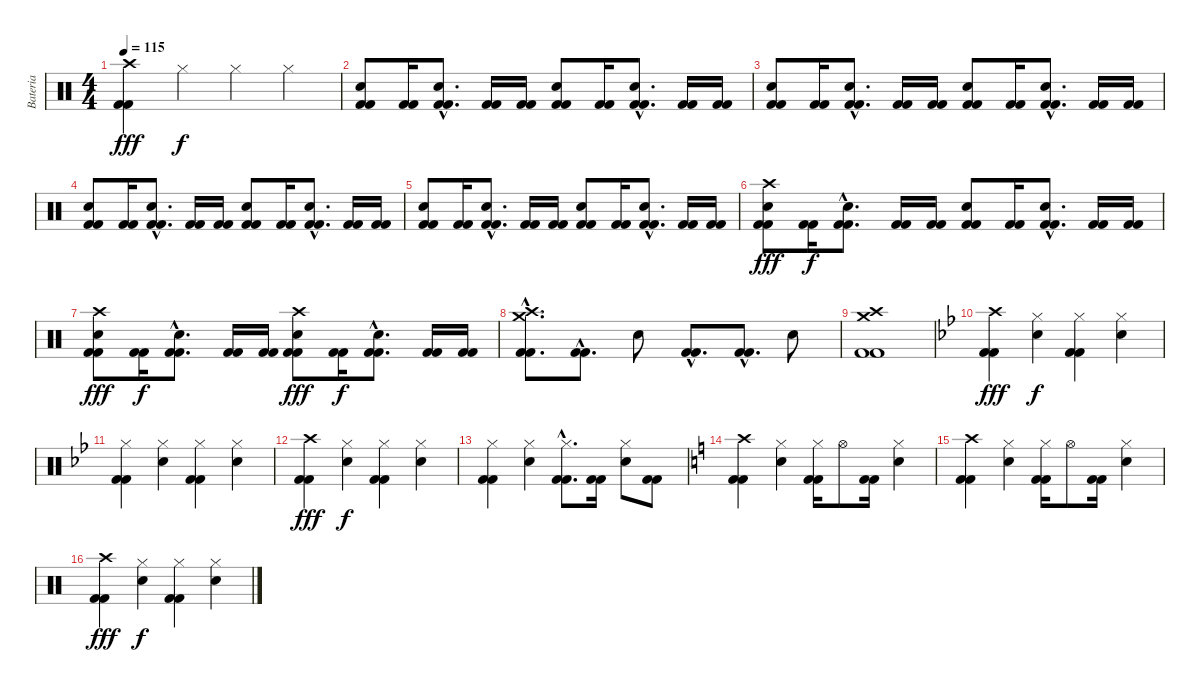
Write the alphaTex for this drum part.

\track ("Bateria" "Bateria") {instrument percussion}
\staff {score}
\articulation defaults
\ts (4 4)
\tempo 115
\clef neutral
\ks c
("Crash high (hit)" "Kick (hit) 2" "Kick (hit) 2").4{dy fff} "Hi-Hat (closed)".4{dy f} "Hi-Hat (closed)".4 "Hi-Hat (closed)".4 |
("Electric Snare (hit)" "Kick (hit) 2" "Kick (hit) 2").8 ("Kick (hit) 2" "Kick (hit) 2").16 ("Electric Snare (hit)"{hac} "Kick (hit) 2"{hac} "Kick (hit) 2"{hac}).8{d} ("Kick (hit) 2" "Kick (hit) 2").16 ("Kick (hit) 2" "Kick (hit) 2").16 ("Electric Snare (hit)" "Kick (hit) 2" "Kick (hit) 2").8 ("Kick (hit) 2" "Kick (hit) 2").16 ("Electric Snare (hit)"{hac} "Kick (hit) 2"{hac} "Kick (hit) 2"{hac}).8{d} ("Kick (hit) 2" "Kick (hit) 2").16 ("Kick (hit) 2" "Kick (hit) 2").16 |
("Electric Snare (hit)" "Kick (hit) 2" "Kick (hit) 2").8 ("Kick (hit) 2" "Kick (hit) 2").16 ("Electric Snare (hit)"{hac} "Kick (hit) 2"{hac} "Kick (hit) 2"{hac}).8{d} ("Kick (hit) 2" "Kick (hit) 2").16 ("Kick (hit) 2" "Kick (hit) 2").16 ("Electric Snare (hit)" "Kick (hit) 2" "Kick (hit) 2").8 ("Kick (hit) 2" "Kick (hit) 2").16 ("Electric Snare (hit)"{hac} "Kick (hit) 2"{hac} "Kick (hit) 2"{hac}).8{d} ("Kick (hit) 2" "Kick (hit) 2").16 ("Kick (hit) 2" "Kick (hit) 2").16 |
("Electric Snare (hit)" "Kick (hit) 2" "Kick (hit) 2").8 ("Kick (hit) 2" "Kick (hit) 2").16 ("Electric Snare (hit)"{hac} "Kick (hit) 2"{hac} "Kick (hit) 2"{hac}).8{d} ("Kick (hit) 2" "Kick (hit) 2").16 ("Kick (hit) 2" "Kick (hit) 2").16 ("Electric Snare (hit)" "Kick (hit) 2" "Kick (hit) 2").8 ("Kick (hit) 2" "Kick (hit) 2").16 ("Electric Snare (hit)"{hac} "Kick (hit) 2"{hac} "Kick (hit) 2"{hac}).8{d} ("Kick (hit) 2" "Kick (hit) 2").16 ("Kick (hit) 2" "Kick (hit) 2").16 |
("Electric Snare (hit)" "Kick (hit) 2" "Kick (hit) 2").8 ("Kick (hit) 2" "Kick (hit) 2").16 ("Electric Snare (hit)"{hac} "Kick (hit) 2"{hac} "Kick (hit) 2"{hac}).8{d} ("Kick (hit) 2" "Kick (hit) 2").16 ("Kick (hit) 2" "Kick (hit) 2").16 ("Electric Snare (hit)" "Kick (hit) 2" "Kick (hit) 2").8 ("Kick (hit) 2" "Kick (hit) 2").16 ("Electric Snare (hit)"{hac} "Kick (hit) 2"{hac} "Kick (hit) 2"{hac}).8{d} ("Kick (hit) 2" "Kick (hit) 2").16 ("Kick (hit) 2" "Kick (hit) 2").16 |
("Crash high (hit)" "Electric Snare (hit)" "Kick (hit) 2" "Kick (hit) 2").8{dy fff} ("Kick (hit) 2" "Kick (hit) 2").16{dy f} ("Electric Snare (hit)"{hac} "Kick (hit) 2"{hac} "Kick (hit) 2"{hac}).8{d} ("Kick (hit) 2" "Kick (hit) 2").16 ("Kick (hit) 2" "Kick (hit) 2").16 ("Electric Snare (hit)" "Kick (hit) 2" "Kick (hit) 2").8 ("Kick (hit) 2" "Kick (hit) 2").16 ("Electric Snare (hit)"{hac} "Kick (hit) 2"{hac} "Kick (hit) 2"{hac}).8{d} ("Kick (hit) 2" "Kick (hit) 2").16 ("Kick (hit) 2" "Kick (hit) 2").16 |
("Crash high (hit)" "Electric Snare (hit)" "Kick (hit) 2" "Kick (hit) 2").8{dy fff} ("Kick (hit) 2" "Kick (hit) 2").16{dy f} ("Electric Snare (hit)"{hac} "Kick (hit) 2"{hac} "Kick (hit) 2"{hac}).8{d} ("Kick (hit) 2" "Kick (hit) 2").16 ("Kick (hit) 2" "Kick (hit) 2").16 ("Crash high (hit)" "Electric Snare (hit)" "Kick (hit) 2" "Kick (hit) 2").8{dy fff} ("Kick (hit) 2" "Kick (hit) 2").16{dy f} ("Electric Snare (hit)"{hac} "Kick (hit) 2"{hac} "Kick (hit) 2"{hac}).8{d} ("Kick (hit) 2" "Kick (hit) 2").16 ("Kick (hit) 2" "Kick (hit) 2").16 |
("Crash high (hit)"{hac} "Crash medium (hit)"{hac} "Kick (hit) 2"{hac} "Kick (hit) 2"{hac}).8{d} ("Kick (hit) 2"{hac} "Kick (hit) 2"{hac}).8{d} "Electric Snare (hit)".8 ("Kick (hit) 2"{hac} "Kick (hit) 2"{hac}).8{d} ("Kick (hit) 2"{hac} "Kick (hit) 2"{hac}).8{d} "Electric Snare (hit)".8 |
("Crash high (hit)" "Crash medium (hit)" "Kick (hit) 2" "Kick (hit) 2").1 |
\ks bb
("Crash high (hit)" "Kick (hit) 2" "Kick (hit) 2").4{dy fff} ("Hi-Hat (closed)" "Electric Snare (hit)").4{dy f} ("Hi-Hat (closed)" "Kick (hit) 2" "Kick (hit) 2").4 ("Hi-Hat (closed)" "Electric Snare (hit)").4 |
("Hi-Hat (closed)" "Kick (hit) 2" "Kick (hit) 2").4 ("Hi-Hat (closed)" "Electric Snare (hit)").4 ("Hi-Hat (closed)" "Kick (hit) 2" "Kick (hit) 2").4 ("Hi-Hat (closed)" "Electric Snare (hit)").4 |
("Crash high (hit)" "Kick (hit) 2" "Kick (hit) 2").4{dy fff} ("Hi-Hat (closed)" "Electric Snare (hit)").4{dy f} ("Hi-Hat (closed)" "Kick (hit) 2" "Kick (hit) 2").4 ("Hi-Hat (closed)" "Electric Snare (hit)").4 |
("Hi-Hat (closed)" "Kick (hit) 2" "Kick (hit) 2").4 ("Hi-Hat (closed)" "Electric Snare (hit)").4 ("Hi-Hat (closed)"{hac} "Kick (hit) 2"{hac} "Kick (hit) 2"{hac}).8{d} ("Kick (hit) 2" "Kick (hit) 2").16 ("Hi-Hat (closed)" "Electric Snare (hit)").8 ("Kick (hit) 2" "Kick (hit) 2").8 |
\ks c
("Crash high (hit)" "Kick (hit) 2" "Kick (hit) 2").4 ("Hi-Hat (closed)" "Electric Snare (hit)").4 ("Hi-Hat (closed)" "Kick (hit) 2" "Kick (hit) 2").16 "Hi-Hat (open)".8 ("Kick (hit) 2" "Kick (hit) 2").16 ("Hi-Hat (closed)" "Electric Snare (hit)").4 |
("Crash high (hit)" "Kick (hit) 2" "Kick (hit) 2").4 ("Hi-Hat (closed)" "Electric Snare (hit)").4 ("Hi-Hat (closed)" "Kick (hit) 2" "Kick (hit) 2").16 "Hi-Hat (open)".8 ("Kick (hit) 2" "Kick (hit) 2").16 ("Hi-Hat (closed)" "Electric Snare (hit)").4 |
("Crash high (hit)" "Kick (hit) 2" "Kick (hit) 2").4{dy fff} ("Hi-Hat (closed)" "Electric Snare (hit)").4{dy f} ("Hi-Hat (closed)" "Kick (hit) 2" "Kick (hit) 2").4 ("Hi-Hat (closed)" "Electric Snare (hit)").4
